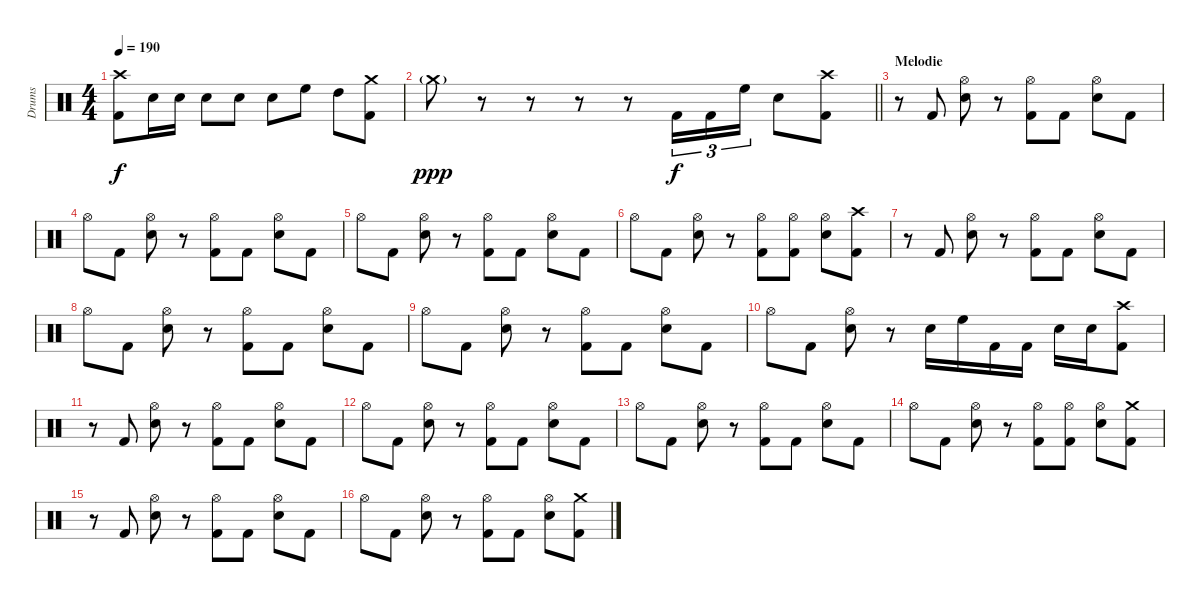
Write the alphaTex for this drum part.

\track ("Drums" "Drums") {instrument percussion}
\staff
\articulation defaults
\ts (4 4)
\tempo 190
\clef neutral
\ks c
("Crash high (hit)" "Kick (hit) 2").8{dy f} "Electric Snare (hit)".16 "Electric Snare (hit)".16 "Electric Snare (hit)".8 "Electric Snare (hit)".8 "Electric Snare (hit)".8 "High Floor Tom (hit)".8 "High Tom (hit)".8 ("Crash medium (hit)" "Kick (hit) 2").8 |
\barLineRight lightlight "Crash medium (hit)"{g}.8{dy ppp}
r.8 r.8 r.8 r.8 "Kick (hit) 2".16{tu (3 2) dy f} "Kick (hit) 2".16{tu (3 2)} "High Floor Tom (hit)".16{tu (3 2)} "Electric Snare (hit)".8 ("Crash high (hit)" "Kick (hit) 2").8 |
\section ("" "Melodie")
r.8 "Kick (hit) 2".8 ("Hi-Hat (open)" "Electric Snare (hit)").8 r.8 ("Hi-Hat (open)" "Kick (hit) 2").8 "Kick (hit) 2".8 ("Hi-Hat (open)" "Electric Snare (hit)").8 "Kick (hit) 2".8 |
"Hi-Hat (open)".8 "Kick (hit) 2".8 ("Hi-Hat (open)" "Electric Snare (hit)").8 r.8 ("Hi-Hat (open)" "Kick (hit) 2").8 "Kick (hit) 2".8 ("Hi-Hat (open)" "Electric Snare (hit)").8 "Kick (hit) 2".8 |
"Hi-Hat (open)".8 "Kick (hit) 2".8 ("Hi-Hat (open)" "Electric Snare (hit)").8 r.8 ("Hi-Hat (open)" "Kick (hit) 2").8 "Kick (hit) 2".8 ("Hi-Hat (open)" "Electric Snare (hit)").8 "Kick (hit) 2".8 |
"Hi-Hat (open)".8 "Kick (hit) 2".8 ("Hi-Hat (open)" "Electric Snare (hit)").8 r.8 ("Hi-Hat (open)" "Kick (hit) 2").8 ("Hi-Hat (open)" "Kick (hit) 2").8 ("Hi-Hat (open)" "Electric Snare (hit)").8 ("Crash high (hit)" "Kick (hit) 2").8 |
r.8 "Kick (hit) 2".8 ("Hi-Hat (open)" "Electric Snare (hit)").8 r.8 ("Hi-Hat (open)" "Kick (hit) 2").8 "Kick (hit) 2".8 ("Hi-Hat (open)" "Electric Snare (hit)").8 "Kick (hit) 2".8 |
"Hi-Hat (open)".8 "Kick (hit) 2".8 ("Hi-Hat (open)" "Electric Snare (hit)").8 r.8 ("Hi-Hat (open)" "Kick (hit) 2").8 "Kick (hit) 2".8 ("Hi-Hat (open)" "Electric Snare (hit)").8 "Kick (hit) 2".8 |
"Hi-Hat (open)".8 "Kick (hit) 2".8 ("Hi-Hat (open)" "Electric Snare (hit)").8 r.8 ("Hi-Hat (open)" "Kick (hit) 2").8 "Kick (hit) 2".8 ("Hi-Hat (open)" "Electric Snare (hit)").8 "Kick (hit) 2".8 |
"Hi-Hat (open)".8 "Kick (hit) 2".8 ("Hi-Hat (open)" "Electric Snare (hit)").8 r.8 "Electric Snare (hit)".16 "High Floor Tom (hit)".16 "Kick (hit) 2".16 "Kick (hit) 2".16 "Electric Snare (hit)".16 "Electric Snare (hit)".16 ("Crash high (hit)" "Kick (hit) 2").8 |
r.8 "Kick (hit) 2".8 ("Hi-Hat (open)" "Electric Snare (hit)").8 r.8 ("Hi-Hat (open)" "Kick (hit) 2").8 "Kick (hit) 2".8 ("Hi-Hat (open)" "Electric Snare (hit)").8 "Kick (hit) 2".8 |
"Hi-Hat (open)".8 "Kick (hit) 2".8 ("Hi-Hat (open)" "Electric Snare (hit)").8 r.8 ("Hi-Hat (open)" "Kick (hit) 2").8 "Kick (hit) 2".8 ("Hi-Hat (open)" "Electric Snare (hit)").8 "Kick (hit) 2".8 |
"Hi-Hat (open)".8 "Kick (hit) 2".8 ("Hi-Hat (open)" "Electric Snare (hit)").8 r.8 ("Hi-Hat (open)" "Kick (hit) 2").8 "Kick (hit) 2".8 ("Hi-Hat (open)" "Electric Snare (hit)").8 "Kick (hit) 2".8 |
"Hi-Hat (open)".8 "Kick (hit) 2".8 ("Hi-Hat (open)" "Electric Snare (hit)").8 r.8 ("Hi-Hat (open)" "Kick (hit) 2").8 ("Hi-Hat (open)" "Kick (hit) 2").8 ("Hi-Hat (open)" "Electric Snare (hit)").8 ("Crash medium (hit)" "Kick (hit) 2").8 |
r.8 "Kick (hit) 2".8 ("Hi-Hat (open)" "Electric Snare (hit)").8 r.8 ("Hi-Hat (open)" "Kick (hit) 2").8 "Kick (hit) 2".8 ("Hi-Hat (open)" "Electric Snare (hit)").8 "Kick (hit) 2".8 |
"Hi-Hat (open)".8 "Kick (hit) 2".8 ("Hi-Hat (open)" "Electric Snare (hit)").8 r.8 ("Hi-Hat (open)" "Kick (hit) 2").8 "Kick (hit) 2".8 ("Hi-Hat (open)" "Electric Snare (hit)").8 ("Crash medium (hit)" "Kick (hit) 2").8
